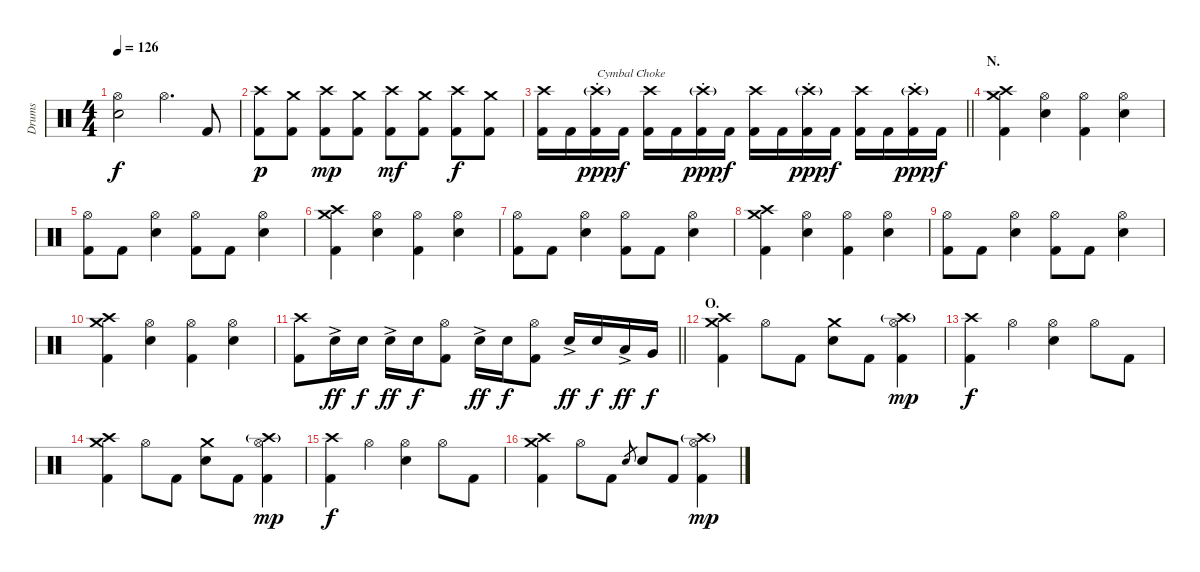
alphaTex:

\track ("Drums" "Drums") {instrument percussion}
\staff {score}
\articulation defaults
\ts (4 4)
\tempo 126
\clef neutral
\ks c
("Hi-Hat (open)" "Electric Snare (hit)").2{dy f} "Hi-Hat (open)".4{d} "Kick (hit) 2".8 |
("Crash high (hit)" "Kick (hit) 2").8{dy p} ("Crash medium (hit)" "Kick (hit) 2").8 ("Crash high (hit)" "Kick (hit) 2").8{dy mp} ("Crash medium (hit)" "Kick (hit) 2").8 ("Crash high (hit)" "Kick (hit) 2").8{dy mf} ("Crash medium (hit)" "Kick (hit) 2").8 ("Crash high (hit)" "Kick (hit) 2").8{dy f} ("Crash medium (hit)" "Kick (hit) 2").8 |
\barLineRight lightlight
("Crash high (hit)" "Kick (hit) 2").16 "Kick (hit) 2".16 ("Crash high (hit)"{g st} "Kick (hit) 2").16{txt "Cymbal Choke" dy ppp} "Kick (hit) 2".16{dy f} ("Crash high (hit)" "Kick (hit) 2").16 "Kick (hit) 2".16 ("Crash high (hit)"{g st} "Kick (hit) 2").16{dy ppp} "Kick (hit) 2".16{dy f} ("Crash high (hit)" "Kick (hit) 2").16 "Kick (hit) 2".16 ("Crash high (hit)"{g st} "Kick (hit) 2").16{dy ppp} "Kick (hit) 2".16{dy f} ("Crash high (hit)" "Kick (hit) 2").16 "Kick (hit) 2".16 ("Crash high (hit)"{g st} "Kick (hit) 2").16{dy ppp} "Kick (hit) 2".16{dy f} |
\section ("" "N.")
("Crash medium (hit)" "Crash high (hit)" "Kick (hit) 2").4 ("Hi-Hat (open)" "Electric Snare (hit)").4 ("Hi-Hat (open)" "Kick (hit) 2").4 ("Hi-Hat (open)" "Electric Snare (hit)").4 |
("Hi-Hat (open)" "Kick (hit) 2").8 "Kick (hit) 2".8 ("Hi-Hat (open)" "Electric Snare (hit)").4 ("Hi-Hat (open)" "Kick (hit) 2").8 "Kick (hit) 2".8 ("Hi-Hat (open)" "Electric Snare (hit)").4 |
("Crash medium (hit)" "Crash high (hit)" "Kick (hit) 2").4 ("Hi-Hat (open)" "Electric Snare (hit)").4 ("Hi-Hat (open)" "Kick (hit) 2").4 ("Hi-Hat (open)" "Electric Snare (hit)").4 |
("Hi-Hat (open)" "Kick (hit) 2").8 "Kick (hit) 2".8 ("Hi-Hat (open)" "Electric Snare (hit)").4 ("Hi-Hat (open)" "Kick (hit) 2").8 "Kick (hit) 2".8 ("Hi-Hat (open)" "Electric Snare (hit)").4 |
("Crash medium (hit)" "Crash high (hit)" "Kick (hit) 2").4 ("Hi-Hat (open)" "Electric Snare (hit)").4 ("Hi-Hat (open)" "Kick (hit) 2").4 ("Hi-Hat (open)" "Electric Snare (hit)").4 |
("Hi-Hat (open)" "Kick (hit) 2").8 "Kick (hit) 2".8 ("Hi-Hat (open)" "Electric Snare (hit)").4 ("Hi-Hat (open)" "Kick (hit) 2").8 "Kick (hit) 2".8 ("Hi-Hat (open)" "Electric Snare (hit)").4 |
("Crash medium (hit)" "Crash high (hit)" "Kick (hit) 2").4 ("Hi-Hat (open)" "Electric Snare (hit)").4 ("Hi-Hat (open)" "Kick (hit) 2").4 ("Hi-Hat (open)" "Electric Snare (hit)").4 |
\barLineRight lightlight
("Crash high (hit)" "Kick (hit) 2").8 "Electric Snare (hit)"{ac}.16{dy ff} "Electric Snare (hit)".16{dy f} "Electric Snare (hit)"{ac}.16{dy ff} "Electric Snare (hit)".16{dy f} ("Hi-Hat (open)" "Kick (hit) 2").8 "Electric Snare (hit)"{ac}.16{dy ff} "Electric Snare (hit)".16{dy f} ("Hi-Hat (open)" "Kick (hit) 2").8 "Electric Snare (hit)"{ac}.16{dy ff} "Electric Snare (hit)".16{dy f} "Low Tom (hit)"{ac}.16{dy ff} "Very Low Tom (hit)".16{dy f} |
\section ("" "O.")
("Crash medium (hit)" "Crash high (hit)" "Kick (hit) 2").4 "Hi-Hat (open)".8 "Kick (hit) 2".8 ("Crash medium (hit)" "Electric Snare (hit)").8 "Kick (hit) 2".8 ("Crash high (hit)"{g} "Hi-Hat (open)" "Kick (hit) 2").4{dy mp} |
("Crash high (hit)" "Kick (hit) 2").4{dy f} "Hi-Hat (open)".4 ("Hi-Hat (open)" "Electric Snare (hit)").4 "Hi-Hat (open)".8 "Kick (hit) 2".8 |
("Crash medium (hit)" "Crash high (hit)" "Kick (hit) 2").4 "Hi-Hat (open)".8 "Kick (hit) 2".8 ("Crash medium (hit)" "Electric Snare (hit)").8 "Kick (hit) 2".8 ("Crash high (hit)"{g} "Hi-Hat (open)" "Kick (hit) 2").4{dy mp} |
("Crash high (hit)" "Kick (hit) 2").4{dy f} "Hi-Hat (open)".4 ("Hi-Hat (open)" "Electric Snare (hit)").4 "Hi-Hat (open)".8 "Kick (hit) 2".8 |
("Crash medium (hit)" "Crash high (hit)" "Kick (hit) 2").4 "Hi-Hat (open)".8 "Kick (hit) 2".8 "Electric Snare (hit)".8{gr} "Electric Snare (hit)".8 "Kick (hit) 2".8 ("Crash high (hit)"{g} "Hi-Hat (open)" "Kick (hit) 2").4{dy mp}
